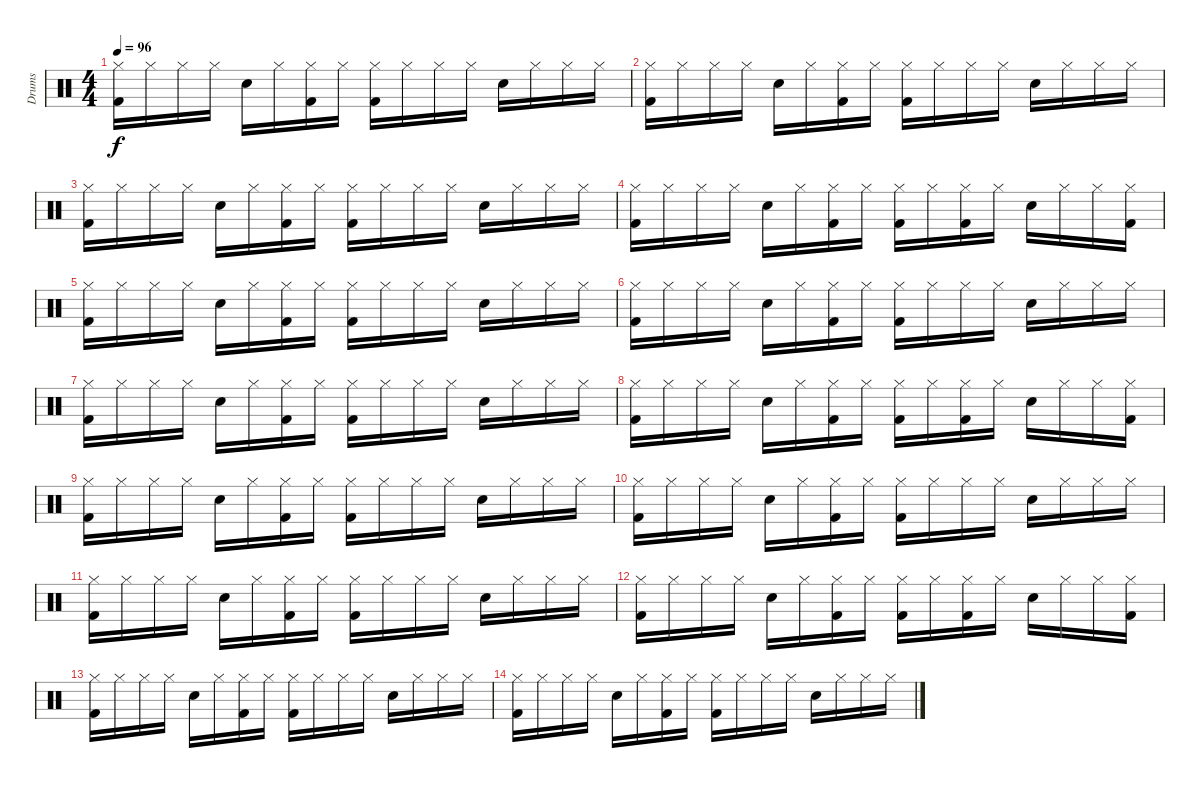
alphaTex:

\track ("Drums" "Drums") {instrument percussion}
\staff {score}
\articulation defaults
\ts (4 4)
\tempo 96
\clef neutral
\ks c
("Hi-Hat (closed)" "Kick (hit) 2").16{dy f} "Hi-Hat (closed)".16 "Hi-Hat (closed)".16 "Hi-Hat (closed)".16 "Snare (hit) 2".16 "Hi-Hat (closed)".16 ("Hi-Hat (closed)" "Kick (hit) 2").16 "Hi-Hat (closed)".16 ("Hi-Hat (closed)" "Kick (hit) 2").16 "Hi-Hat (closed)".16 "Hi-Hat (closed)".16 "Hi-Hat (closed)".16 "Snare (hit) 2".16 "Hi-Hat (closed)".16 "Hi-Hat (closed)".16 "Hi-Hat (closed)".16 |
("Hi-Hat (closed)" "Kick (hit) 2").16 "Hi-Hat (closed)".16 "Hi-Hat (closed)".16 "Hi-Hat (closed)".16 "Snare (hit) 2".16 "Hi-Hat (closed)".16 ("Hi-Hat (closed)" "Kick (hit) 2").16 "Hi-Hat (closed)".16 ("Hi-Hat (closed)" "Kick (hit) 2").16 "Hi-Hat (closed)".16 "Hi-Hat (closed)".16 "Hi-Hat (closed)".16 "Snare (hit) 2".16 "Hi-Hat (closed)".16 "Hi-Hat (closed)".16 "Hi-Hat (closed)".16 |
("Hi-Hat (closed)" "Kick (hit) 2").16 "Hi-Hat (closed)".16 "Hi-Hat (closed)".16 "Hi-Hat (closed)".16 "Snare (hit) 2".16 "Hi-Hat (closed)".16 ("Hi-Hat (closed)" "Kick (hit) 2").16 "Hi-Hat (closed)".16 ("Hi-Hat (closed)" "Kick (hit) 2").16 "Hi-Hat (closed)".16 "Hi-Hat (closed)".16 "Hi-Hat (closed)".16 "Snare (hit) 2".16 "Hi-Hat (closed)".16 "Hi-Hat (closed)".16 "Hi-Hat (closed)".16 |
("Hi-Hat (closed)" "Kick (hit) 2").16 "Hi-Hat (closed)".16 "Hi-Hat (closed)".16 "Hi-Hat (closed)".16 "Snare (hit) 2".16 "Hi-Hat (closed)".16 ("Hi-Hat (closed)" "Kick (hit) 2").16 "Hi-Hat (closed)".16 ("Hi-Hat (closed)" "Kick (hit) 2").16 "Hi-Hat (closed)".16 ("Hi-Hat (closed)" "Kick (hit) 2").16 "Hi-Hat (closed)".16 "Snare (hit) 2".16 "Hi-Hat (closed)".16 "Hi-Hat (closed)".16 ("Hi-Hat (closed)" "Kick (hit) 2").16 |
("Hi-Hat (closed)" "Kick (hit) 2").16 "Hi-Hat (closed)".16 "Hi-Hat (closed)".16 "Hi-Hat (closed)".16 "Snare (hit) 2".16 "Hi-Hat (closed)".16 ("Hi-Hat (closed)" "Kick (hit) 2").16 "Hi-Hat (closed)".16 ("Hi-Hat (closed)" "Kick (hit) 2").16 "Hi-Hat (closed)".16 "Hi-Hat (closed)".16 "Hi-Hat (closed)".16 "Snare (hit) 2".16 "Hi-Hat (closed)".16 "Hi-Hat (closed)".16 "Hi-Hat (closed)".16 |
("Hi-Hat (closed)" "Kick (hit) 2").16 "Hi-Hat (closed)".16 "Hi-Hat (closed)".16 "Hi-Hat (closed)".16 "Snare (hit) 2".16 "Hi-Hat (closed)".16 ("Hi-Hat (closed)" "Kick (hit) 2").16 "Hi-Hat (closed)".16 ("Hi-Hat (closed)" "Kick (hit) 2").16 "Hi-Hat (closed)".16 "Hi-Hat (closed)".16 "Hi-Hat (closed)".16 "Snare (hit) 2".16 "Hi-Hat (closed)".16 "Hi-Hat (closed)".16 "Hi-Hat (closed)".16 |
("Hi-Hat (closed)" "Kick (hit) 2").16 "Hi-Hat (closed)".16 "Hi-Hat (closed)".16 "Hi-Hat (closed)".16 "Snare (hit) 2".16 "Hi-Hat (closed)".16 ("Hi-Hat (closed)" "Kick (hit) 2").16 "Hi-Hat (closed)".16 ("Hi-Hat (closed)" "Kick (hit) 2").16 "Hi-Hat (closed)".16 "Hi-Hat (closed)".16 "Hi-Hat (closed)".16 "Snare (hit) 2".16 "Hi-Hat (closed)".16 "Hi-Hat (closed)".16 "Hi-Hat (closed)".16 |
("Hi-Hat (closed)" "Kick (hit) 2").16 "Hi-Hat (closed)".16 "Hi-Hat (closed)".16 "Hi-Hat (closed)".16 "Snare (hit) 2".16 "Hi-Hat (closed)".16 ("Hi-Hat (closed)" "Kick (hit) 2").16 "Hi-Hat (closed)".16 ("Hi-Hat (closed)" "Kick (hit) 2").16 "Hi-Hat (closed)".16 ("Hi-Hat (closed)" "Kick (hit) 2").16 "Hi-Hat (closed)".16 "Snare (hit) 2".16 "Hi-Hat (closed)".16 "Hi-Hat (closed)".16 ("Hi-Hat (closed)" "Kick (hit) 2").16 |
("Hi-Hat (closed)" "Kick (hit) 2").16 "Hi-Hat (closed)".16 "Hi-Hat (closed)".16 "Hi-Hat (closed)".16 "Snare (hit) 2".16 "Hi-Hat (closed)".16 ("Hi-Hat (closed)" "Kick (hit) 2").16 "Hi-Hat (closed)".16 ("Hi-Hat (closed)" "Kick (hit) 2").16 "Hi-Hat (closed)".16 "Hi-Hat (closed)".16 "Hi-Hat (closed)".16 "Snare (hit) 2".16 "Hi-Hat (closed)".16 "Hi-Hat (closed)".16 "Hi-Hat (closed)".16 |
("Hi-Hat (closed)" "Kick (hit) 2").16 "Hi-Hat (closed)".16 "Hi-Hat (closed)".16 "Hi-Hat (closed)".16 "Snare (hit) 2".16 "Hi-Hat (closed)".16 ("Hi-Hat (closed)" "Kick (hit) 2").16 "Hi-Hat (closed)".16 ("Hi-Hat (closed)" "Kick (hit) 2").16 "Hi-Hat (closed)".16 "Hi-Hat (closed)".16 "Hi-Hat (closed)".16 "Snare (hit) 2".16 "Hi-Hat (closed)".16 "Hi-Hat (closed)".16 "Hi-Hat (closed)".16 |
("Hi-Hat (closed)" "Kick (hit) 2").16 "Hi-Hat (closed)".16 "Hi-Hat (closed)".16 "Hi-Hat (closed)".16 "Snare (hit) 2".16 "Hi-Hat (closed)".16 ("Hi-Hat (closed)" "Kick (hit) 2").16 "Hi-Hat (closed)".16 ("Hi-Hat (closed)" "Kick (hit) 2").16 "Hi-Hat (closed)".16 "Hi-Hat (closed)".16 "Hi-Hat (closed)".16 "Snare (hit) 2".16 "Hi-Hat (closed)".16 "Hi-Hat (closed)".16 "Hi-Hat (closed)".16 |
("Hi-Hat (closed)" "Kick (hit) 2").16 "Hi-Hat (closed)".16 "Hi-Hat (closed)".16 "Hi-Hat (closed)".16 "Snare (hit) 2".16 "Hi-Hat (closed)".16 ("Hi-Hat (closed)" "Kick (hit) 2").16 "Hi-Hat (closed)".16 ("Hi-Hat (closed)" "Kick (hit) 2").16 "Hi-Hat (closed)".16 ("Hi-Hat (closed)" "Kick (hit) 2").16 "Hi-Hat (closed)".16 "Snare (hit) 2".16 "Hi-Hat (closed)".16 "Hi-Hat (closed)".16 ("Hi-Hat (closed)" "Kick (hit) 2").16 |
("Hi-Hat (closed)" "Kick (hit) 2").16 "Hi-Hat (closed)".16 "Hi-Hat (closed)".16 "Hi-Hat (closed)".16 "Snare (hit) 2".16 "Hi-Hat (closed)".16 ("Hi-Hat (closed)" "Kick (hit) 2").16 "Hi-Hat (closed)".16 ("Hi-Hat (closed)" "Kick (hit) 2").16 "Hi-Hat (closed)".16 "Hi-Hat (closed)".16 "Hi-Hat (closed)".16 "Snare (hit) 2".16 "Hi-Hat (closed)".16 "Hi-Hat (closed)".16 "Hi-Hat (closed)".16 |
("Hi-Hat (closed)" "Kick (hit) 2").16 "Hi-Hat (closed)".16 "Hi-Hat (closed)".16 "Hi-Hat (closed)".16 "Snare (hit) 2".16 "Hi-Hat (closed)".16 ("Hi-Hat (closed)" "Kick (hit) 2").16 "Hi-Hat (closed)".16 ("Hi-Hat (closed)" "Kick (hit) 2").16 "Hi-Hat (closed)".16 "Hi-Hat (closed)".16 "Hi-Hat (closed)".16 "Snare (hit) 2".16 "Hi-Hat (closed)".16 "Hi-Hat (closed)".16 "Hi-Hat (closed)".16
